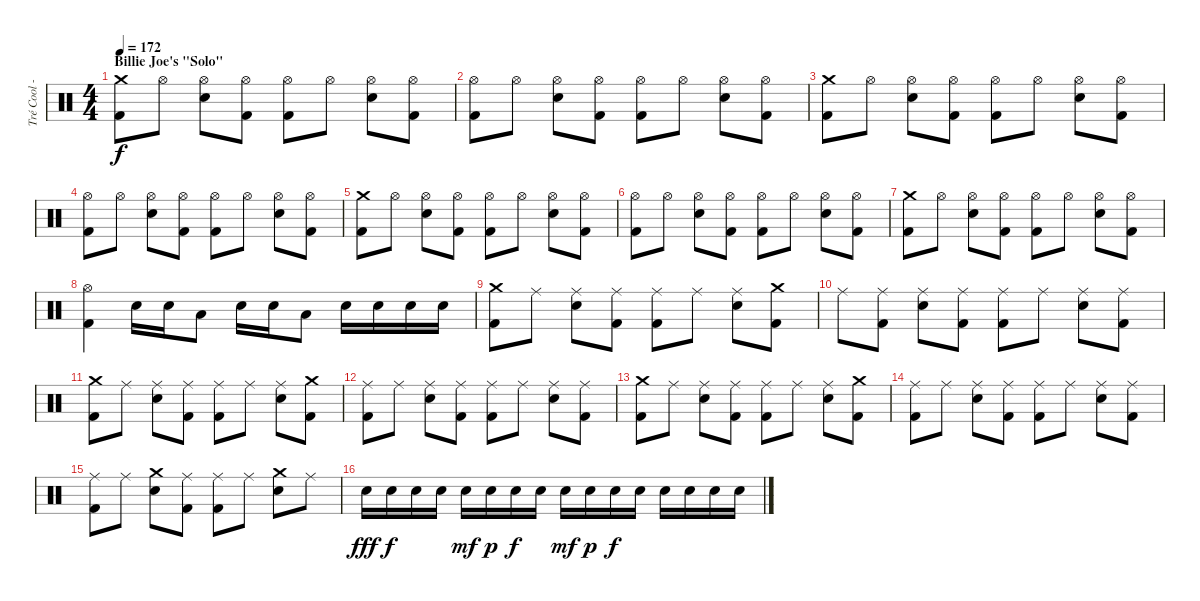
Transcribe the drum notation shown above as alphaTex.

\track ("Tré Cool - Bateria / Drums" "Tré Cool -") {instrument percussion}
\staff {score}
\articulation defaults
\ts (4 4)
\section ("" "Billie Joe's \"Solo\"")
\tempo 172
\clef neutral
\ks c
("Crash medium (hit)" "Kick (hit) 2").8{dy f} "Hi-Hat (open)".8 ("Hi-Hat (open)" "Electric Snare (hit)").8 ("Hi-Hat (open)" "Kick (hit) 2").8 ("Hi-Hat (open)" "Kick (hit) 2").8 "Hi-Hat (open)".8 ("Hi-Hat (open)" "Electric Snare (hit)").8 ("Hi-Hat (open)" "Kick (hit) 2").8 |
("Hi-Hat (open)" "Kick (hit) 2").8 "Hi-Hat (open)".8 ("Hi-Hat (open)" "Electric Snare (hit)").8 ("Hi-Hat (open)" "Kick (hit) 2").8 ("Hi-Hat (open)" "Kick (hit) 2").8 "Hi-Hat (open)".8 ("Hi-Hat (open)" "Electric Snare (hit)").8 ("Hi-Hat (open)" "Kick (hit) 2").8 |
("Crash medium (hit)" "Kick (hit) 2").8 "Hi-Hat (open)".8 ("Hi-Hat (open)" "Electric Snare (hit)").8 ("Hi-Hat (open)" "Kick (hit) 2").8 ("Hi-Hat (open)" "Kick (hit) 2").8 "Hi-Hat (open)".8 ("Hi-Hat (open)" "Electric Snare (hit)").8 ("Hi-Hat (open)" "Kick (hit) 2").8 |
("Hi-Hat (open)" "Kick (hit) 2").8 "Hi-Hat (open)".8 ("Hi-Hat (open)" "Electric Snare (hit)").8 ("Hi-Hat (open)" "Kick (hit) 2").8 ("Hi-Hat (open)" "Kick (hit) 2").8 "Hi-Hat (open)".8 ("Hi-Hat (open)" "Electric Snare (hit)").8 ("Hi-Hat (open)" "Kick (hit) 2").8 |
("Crash medium (hit)" "Kick (hit) 2").8 "Hi-Hat (open)".8 ("Hi-Hat (open)" "Electric Snare (hit)").8 ("Hi-Hat (open)" "Kick (hit) 2").8 ("Hi-Hat (open)" "Kick (hit) 2").8 "Hi-Hat (open)".8 ("Hi-Hat (open)" "Electric Snare (hit)").8 ("Hi-Hat (open)" "Kick (hit) 2").8 |
("Hi-Hat (open)" "Kick (hit) 2").8 "Hi-Hat (open)".8 ("Hi-Hat (open)" "Electric Snare (hit)").8 ("Hi-Hat (open)" "Kick (hit) 2").8 ("Hi-Hat (open)" "Kick (hit) 2").8 "Hi-Hat (open)".8 ("Hi-Hat (open)" "Electric Snare (hit)").8 ("Hi-Hat (open)" "Kick (hit) 2").8 |
("Crash medium (hit)" "Kick (hit) 2").8 "Hi-Hat (open)".8 ("Hi-Hat (open)" "Electric Snare (hit)").8 ("Hi-Hat (open)" "Kick (hit) 2").8 ("Hi-Hat (open)" "Kick (hit) 2").8 "Hi-Hat (open)".8 ("Hi-Hat (open)" "Electric Snare (hit)").8 ("Hi-Hat (open)" "Kick (hit) 2").8 |
("Hi-Hat (open)" "Kick (hit) 2").4 "Electric Snare (hit)".16 "Electric Snare (hit)".16 "Low Tom (hit)".8 "Electric Snare (hit)".16 "Electric Snare (hit)".16 "Low Tom (hit)".8 "Electric Snare (hit)".16 "Electric Snare (hit)".16 "Electric Snare (hit)".16 "Electric Snare (hit)".16 |
("Crash medium (hit)" "Kick (hit) 2").8 "Ride (middle)".8 ("Ride (middle)" "Electric Snare (hit)").8 ("Ride (middle)" "Kick (hit) 2").8 ("Ride (middle)" "Kick (hit) 2").8 "Ride (middle)".8 ("Ride (middle)" "Electric Snare (hit)").8 ("Crash medium (hit)" "Kick (hit) 2").8 |
"Ride (middle)".8 ("Ride (middle)" "Kick (hit) 2").8 ("Ride (middle)" "Electric Snare (hit)").8 ("Ride (middle)" "Kick (hit) 2").8 ("Ride (middle)" "Kick (hit) 2").8 "Ride (middle)".8 ("Ride (middle)" "Electric Snare (hit)").8 ("Ride (middle)" "Kick (hit) 2").8 |
("Crash medium (hit)" "Kick (hit) 2").8 "Ride (middle)".8 ("Ride (middle)" "Electric Snare (hit)").8 ("Ride (middle)" "Kick (hit) 2").8 ("Ride (middle)" "Kick (hit) 2").8 "Ride (middle)".8 ("Ride (middle)" "Electric Snare (hit)").8 ("Crash medium (hit)" "Kick (hit) 2").8 |
("Ride (middle)" "Kick (hit) 2").8 "Ride (middle)".8 ("Ride (middle)" "Electric Snare (hit)").8 ("Ride (middle)" "Kick (hit) 2").8 ("Ride (middle)" "Kick (hit) 2").8 "Ride (middle)".8 ("Ride (middle)" "Electric Snare (hit)").8 ("Ride (middle)" "Kick (hit) 2").8 |
("Crash medium (hit)" "Kick (hit) 2").8 "Ride (middle)".8 ("Ride (middle)" "Electric Snare (hit)").8 ("Ride (middle)" "Kick (hit) 2").8 ("Ride (middle)" "Kick (hit) 2").8 "Ride (middle)".8 ("Ride (middle)" "Electric Snare (hit)").8 ("Crash medium (hit)" "Kick (hit) 2").8 |
("Ride (middle)" "Kick (hit) 2").8 "Ride (middle)".8 ("Ride (middle)" "Electric Snare (hit)").8 ("Ride (middle)" "Kick (hit) 2").8 ("Ride (middle)" "Kick (hit) 2").8 "Ride (middle)".8 ("Ride (middle)" "Electric Snare (hit)").8 ("Ride (middle)" "Kick (hit) 2").8 |
("Ride (middle)" "Kick (hit) 2").8 "Ride (middle)".8 ("Crash medium (hit)" "Electric Snare (hit)").8 ("Ride (middle)" "Kick (hit) 2").8 ("Ride (middle)" "Kick (hit) 2").8 "Ride (middle)".8 ("Crash medium (hit)" "Electric Snare (hit)").8 "Ride (middle)".8 |
"Electric Snare (hit)".16{dy fff} "Electric Snare (hit)".16{dy f} "Electric Snare (hit)".16 "Electric Snare (hit)".16 "Electric Snare (hit)".16{dy mf} "Electric Snare (hit)".16{dy p} "Electric Snare (hit)".16{dy f} "Electric Snare (hit)".16 "Electric Snare (hit)".16{dy mf} "Electric Snare (hit)".16{dy p} "Electric Snare (hit)".16{dy f} "Electric Snare (hit)".16 "Electric Snare (hit)".16 "Electric Snare (hit)".16 "Electric Snare (hit)".16 "Electric Snare (hit)".16
